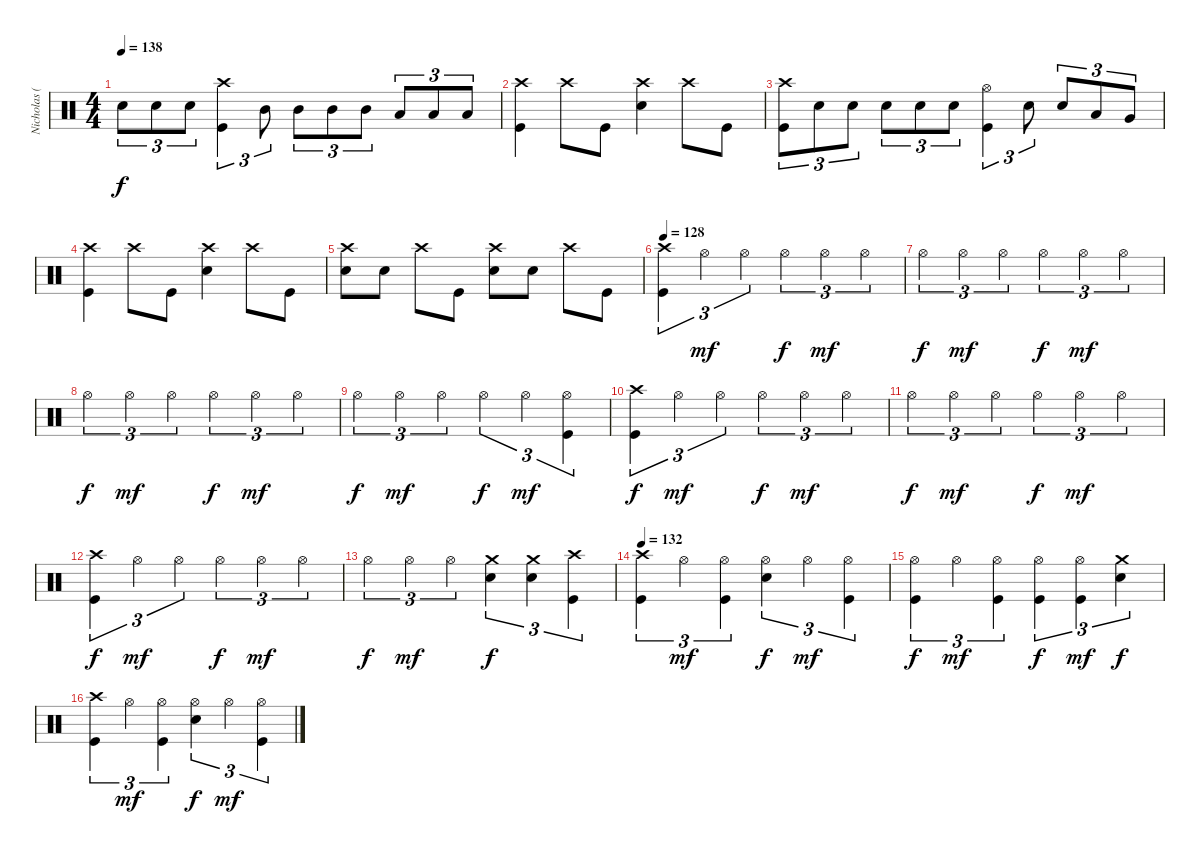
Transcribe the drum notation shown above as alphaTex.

\track ("Nicholas (Drums)" "Nicholas (") {instrument percussion}
\staff {score}
\articulation defaults
\ts (4 4)
\tempo 138
\clef neutral
\ks c "Electric Snare (hit)".8{tu (3 2) dy f} "Electric Snare (hit)".8{tu (3 2)} "Electric Snare (hit)".8{tu (3 2)}
("Crash high (hit)" "Kick (hit)").4{tu (3 2)} "Mid Tom (hit)".8{tu (3 2)} "Mid Tom (hit)".8{tu (3 2)} "Mid Tom (hit)".8{tu (3 2)} "Mid Tom (hit)".8{tu (3 2)} "Low Tom (hit)".8{tu (3 2)} "Low Tom (hit)".8{tu (3 2)} "Low Tom (hit)".8{tu (3 2)} |
("Crash high (hit)" "Kick (hit)").4 "Crash high (hit)".8 "Kick (hit)".8 ("Crash high (hit)" "Electric Snare (hit)").4 "Crash high (hit)".8 "Kick (hit)".8 |
("Crash high (hit)" "Kick (hit)").8{tu (3 2)} "Electric Snare (hit)".8{tu (3 2)} "Electric Snare (hit)".8{tu (3 2)} "Electric Snare (hit)".8{tu (3 2)} "Electric Snare (hit)".8{tu (3 2)} "Electric Snare (hit)".8{tu (3 2)} ("Hi-Hat (open)" "Kick (hit)").4{tu (3 2)} "Electric Snare (hit)".8{tu (3 2)} "Electric Snare (hit)".8{tu (3 2)} "Low Tom (hit)".8{tu (3 2)} "Very Low Tom (hit)".8{tu (3 2)} |
("Crash high (hit)" "Kick (hit)").4 "Crash high (hit)".8 "Kick (hit)".8 ("Crash high (hit)" "Electric Snare (hit)").4 "Crash high (hit)".8 "Kick (hit)".8 |
("Crash high (hit)" "Electric Snare (hit)").8 "Electric Snare (hit)".8 "Crash high (hit)".8 "Kick (hit)".8 ("Crash high (hit)" "Electric Snare (hit)").8 "Electric Snare (hit)".8 "Crash high (hit)".8 "Kick (hit)".8 |
\tempo 128
("Crash high (hit)" "Kick (hit)").4{tu (3 2)} "Hi-Hat (open)".4{tu (3 2) dy mf} "Hi-Hat (open)".4{tu (3 2)} "Hi-Hat (open)".4{tu (3 2) dy f} "Hi-Hat (open)".4{tu (3 2) dy mf} "Hi-Hat (open)".4{tu (3 2)} |
"Hi-Hat (open)".4{tu (3 2) dy f} "Hi-Hat (open)".4{tu (3 2) dy mf} "Hi-Hat (open)".4{tu (3 2)} "Hi-Hat (open)".4{tu (3 2) dy f} "Hi-Hat (open)".4{tu (3 2) dy mf} "Hi-Hat (open)".4{tu (3 2)} |
"Hi-Hat (open)".4{tu (3 2) dy f} "Hi-Hat (open)".4{tu (3 2) dy mf} "Hi-Hat (open)".4{tu (3 2)} "Hi-Hat (open)".4{tu (3 2) dy f} "Hi-Hat (open)".4{tu (3 2) dy mf} "Hi-Hat (open)".4{tu (3 2)} |
"Hi-Hat (open)".4{tu (3 2) dy f} "Hi-Hat (open)".4{tu (3 2) dy mf} "Hi-Hat (open)".4{tu (3 2)} "Hi-Hat (open)".4{tu (3 2) dy f} "Hi-Hat (open)".4{tu (3 2) dy mf} ("Hi-Hat (open)" "Kick (hit)").4{tu (3 2)} |
("Crash high (hit)" "Kick (hit)").4{tu (3 2) dy f} "Hi-Hat (open)".4{tu (3 2) dy mf} "Hi-Hat (open)".4{tu (3 2)} "Hi-Hat (open)".4{tu (3 2) dy f} "Hi-Hat (open)".4{tu (3 2) dy mf} "Hi-Hat (open)".4{tu (3 2)} |
"Hi-Hat (open)".4{tu (3 2) dy f} "Hi-Hat (open)".4{tu (3 2) dy mf} "Hi-Hat (open)".4{tu (3 2)} "Hi-Hat (open)".4{tu (3 2) dy f} "Hi-Hat (open)".4{tu (3 2) dy mf} "Hi-Hat (open)".4{tu (3 2)} |
("Crash high (hit)" "Kick (hit)").4{tu (3 2) dy f} "Hi-Hat (open)".4{tu (3 2) dy mf} "Hi-Hat (open)".4{tu (3 2)} "Hi-Hat (open)".4{tu (3 2) dy f} "Hi-Hat (open)".4{tu (3 2) dy mf} "Hi-Hat (open)".4{tu (3 2)} |
"Hi-Hat (open)".4{tu (3 2) dy f} "Hi-Hat (open)".4{tu (3 2) dy mf} "Hi-Hat (open)".4{tu (3 2)} ("Crash medium (hit)" "Electric Snare (hit)").4{tu (3 2) dy f} ("Crash medium (hit)" "Electric Snare (hit)").4{tu (3 2)} ("Crash high (hit)" "Kick (hit)").4{tu (3 2)} |
\tempo 132
("Crash high (hit)" "Kick (hit)").4{tu (3 2)} "Hi-Hat (open)".4{tu (3 2) dy mf} ("Hi-Hat (open)" "Kick (hit)").4{tu (3 2)} ("Hi-Hat (open)" "Electric Snare (hit)").4{tu (3 2) dy f} "Hi-Hat (open)".4{tu (3 2) dy mf} ("Hi-Hat (open)" "Kick (hit)").4{tu (3 2)} |
("Hi-Hat (open)" "Kick (hit)").4{tu (3 2) dy f} "Hi-Hat (open)".4{tu (3 2) dy mf} ("Hi-Hat (open)" "Kick (hit)").4{tu (3 2)} ("Hi-Hat (open)" "Kick (hit)").4{tu (3 2) dy f} ("Hi-Hat (open)" "Kick (hit)").4{tu (3 2) dy mf} ("Crash medium (hit)" "Electric Snare (hit)").4{tu (3 2) dy f} |
("Crash high (hit)" "Kick (hit)").4{tu (3 2)} "Hi-Hat (open)".4{tu (3 2) dy mf} ("Hi-Hat (open)" "Kick (hit)").4{tu (3 2)} ("Hi-Hat (open)" "Electric Snare (hit)").4{tu (3 2) dy f} "Hi-Hat (open)".4{tu (3 2) dy mf} ("Hi-Hat (open)" "Kick (hit)").4{tu (3 2)}
